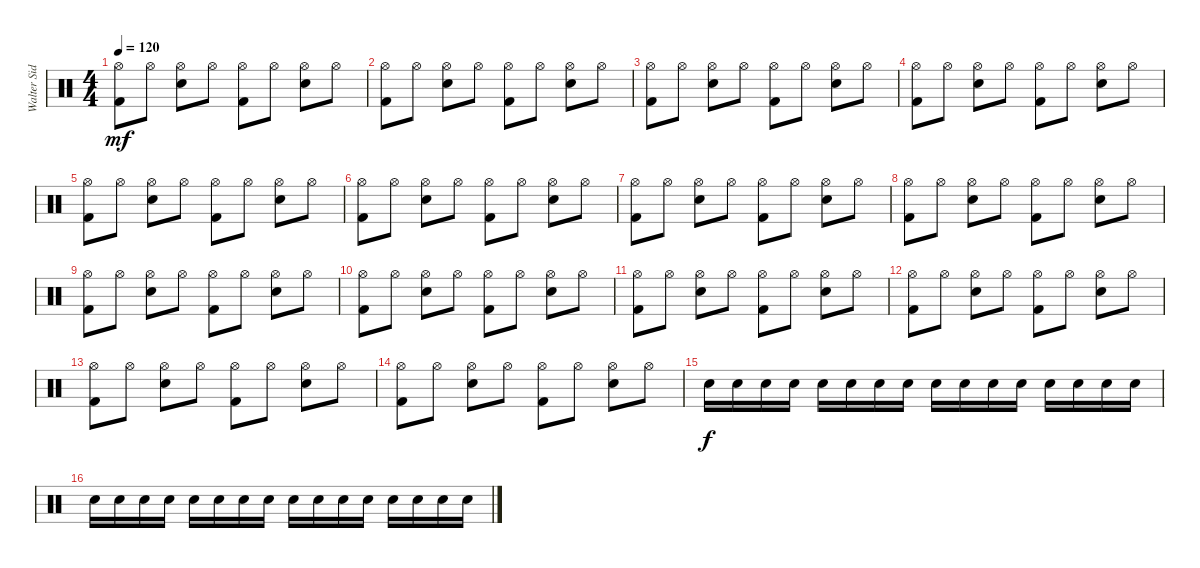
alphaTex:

\track ("Walter Sidotti" "Walter Sid") {instrument percussion}
\staff {score}
\articulation defaults
\ts (4 4)
\tempo 120
\clef neutral
\ks c
("Kick (hit) 2" "Hi-Hat (open)").8{dy mf} "Hi-Hat (open)".8 ("Electric Snare (hit)" "Hi-Hat (open)").8 "Hi-Hat (open)".8 ("Kick (hit) 2" "Hi-Hat (open)").8 "Hi-Hat (open)".8 ("Electric Snare (hit)" "Hi-Hat (open)").8 "Hi-Hat (open)".8 |
("Kick (hit) 2" "Hi-Hat (open)").8 "Hi-Hat (open)".8 ("Electric Snare (hit)" "Hi-Hat (open)").8 "Hi-Hat (open)".8 ("Kick (hit) 2" "Hi-Hat (open)").8 "Hi-Hat (open)".8 ("Electric Snare (hit)" "Hi-Hat (open)").8 "Hi-Hat (open)".8 |
("Kick (hit) 2" "Hi-Hat (open)").8 "Hi-Hat (open)".8 ("Electric Snare (hit)" "Hi-Hat (open)").8 "Hi-Hat (open)".8 ("Kick (hit) 2" "Hi-Hat (open)").8 "Hi-Hat (open)".8 ("Electric Snare (hit)" "Hi-Hat (open)").8 "Hi-Hat (open)".8 |
("Kick (hit) 2" "Hi-Hat (open)").8 "Hi-Hat (open)".8 ("Electric Snare (hit)" "Hi-Hat (open)").8 "Hi-Hat (open)".8 ("Kick (hit) 2" "Hi-Hat (open)").8 "Hi-Hat (open)".8 ("Electric Snare (hit)" "Hi-Hat (open)").8 "Hi-Hat (open)".8 |
("Kick (hit) 2" "Hi-Hat (open)").8 "Hi-Hat (open)".8 ("Electric Snare (hit)" "Hi-Hat (open)").8 "Hi-Hat (open)".8 ("Kick (hit) 2" "Hi-Hat (open)").8 "Hi-Hat (open)".8 ("Electric Snare (hit)" "Hi-Hat (open)").8 "Hi-Hat (open)".8 |
("Kick (hit) 2" "Hi-Hat (open)").8 "Hi-Hat (open)".8 ("Electric Snare (hit)" "Hi-Hat (open)").8 "Hi-Hat (open)".8 ("Kick (hit) 2" "Hi-Hat (open)").8 "Hi-Hat (open)".8 ("Electric Snare (hit)" "Hi-Hat (open)").8 "Hi-Hat (open)".8 |
("Kick (hit) 2" "Hi-Hat (open)").8 "Hi-Hat (open)".8 ("Electric Snare (hit)" "Hi-Hat (open)").8 "Hi-Hat (open)".8 ("Kick (hit) 2" "Hi-Hat (open)").8 "Hi-Hat (open)".8 ("Electric Snare (hit)" "Hi-Hat (open)").8 "Hi-Hat (open)".8 |
("Kick (hit) 2" "Hi-Hat (open)").8 "Hi-Hat (open)".8 ("Electric Snare (hit)" "Hi-Hat (open)").8 "Hi-Hat (open)".8 ("Kick (hit) 2" "Hi-Hat (open)").8 "Hi-Hat (open)".8 ("Electric Snare (hit)" "Hi-Hat (open)").8 "Hi-Hat (open)".8 |
("Kick (hit) 2" "Hi-Hat (open)").8 "Hi-Hat (open)".8 ("Electric Snare (hit)" "Hi-Hat (open)").8 "Hi-Hat (open)".8 ("Kick (hit) 2" "Hi-Hat (open)").8 "Hi-Hat (open)".8 ("Electric Snare (hit)" "Hi-Hat (open)").8 "Hi-Hat (open)".8 |
("Kick (hit) 2" "Hi-Hat (open)").8 "Hi-Hat (open)".8 ("Electric Snare (hit)" "Hi-Hat (open)").8 "Hi-Hat (open)".8 ("Kick (hit) 2" "Hi-Hat (open)").8 "Hi-Hat (open)".8 ("Electric Snare (hit)" "Hi-Hat (open)").8 "Hi-Hat (open)".8 |
("Kick (hit) 2" "Hi-Hat (open)").8 "Hi-Hat (open)".8 ("Electric Snare (hit)" "Hi-Hat (open)").8 "Hi-Hat (open)".8 ("Kick (hit) 2" "Hi-Hat (open)").8 "Hi-Hat (open)".8 ("Electric Snare (hit)" "Hi-Hat (open)").8 "Hi-Hat (open)".8 |
("Kick (hit) 2" "Hi-Hat (open)").8 "Hi-Hat (open)".8 ("Electric Snare (hit)" "Hi-Hat (open)").8 "Hi-Hat (open)".8 ("Kick (hit) 2" "Hi-Hat (open)").8 "Hi-Hat (open)".8 ("Electric Snare (hit)" "Hi-Hat (open)").8 "Hi-Hat (open)".8 |
("Kick (hit) 2" "Hi-Hat (open)").8 "Hi-Hat (open)".8 ("Electric Snare (hit)" "Hi-Hat (open)").8 "Hi-Hat (open)".8 ("Kick (hit) 2" "Hi-Hat (open)").8 "Hi-Hat (open)".8 ("Electric Snare (hit)" "Hi-Hat (open)").8 "Hi-Hat (open)".8 |
("Kick (hit) 2" "Hi-Hat (open)").8 "Hi-Hat (open)".8 ("Electric Snare (hit)" "Hi-Hat (open)").8 "Hi-Hat (open)".8 ("Kick (hit) 2" "Hi-Hat (open)").8 "Hi-Hat (open)".8 ("Electric Snare (hit)" "Hi-Hat (open)").8 "Hi-Hat (open)".8 |
"Electric Snare (hit)".16{dy f} "Electric Snare (hit)".16 "Electric Snare (hit)".16 "Electric Snare (hit)".16 "Electric Snare (hit)".16 "Electric Snare (hit)".16 "Electric Snare (hit)".16 "Electric Snare (hit)".16 "Electric Snare (hit)".16 "Electric Snare (hit)".16 "Electric Snare (hit)".16 "Electric Snare (hit)".16 "Electric Snare (hit)".16 "Electric Snare (hit)".16 "Electric Snare (hit)".16 "Electric Snare (hit)".16 |
"Electric Snare (hit)".16 "Electric Snare (hit)".16 "Electric Snare (hit)".16 "Electric Snare (hit)".16 "Electric Snare (hit)".16 "Electric Snare (hit)".16 "Electric Snare (hit)".16 "Electric Snare (hit)".16 "Electric Snare (hit)".16 "Electric Snare (hit)".16 "Electric Snare (hit)".16 "Electric Snare (hit)".16 "Electric Snare (hit)".16 "Electric Snare (hit)".16 "Electric Snare (hit)".16 "Electric Snare (hit)".16
